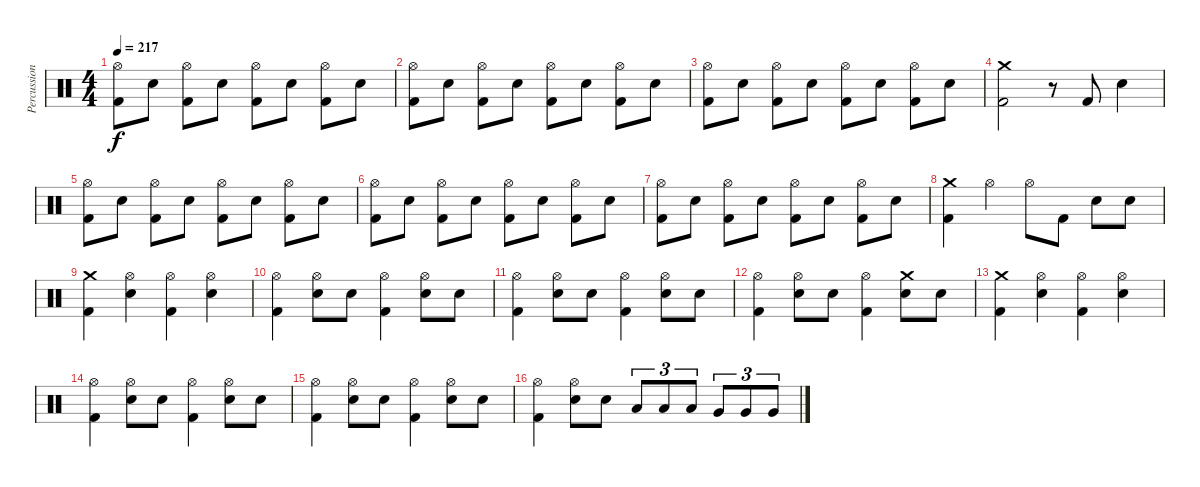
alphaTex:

\track ("Percussions" "Percussion") {instrument percussion}
\staff {score}
\articulation defaults
\ts (4 4)
\tempo 217
\clef neutral
\ks c
("Hi-Hat (open)" "Kick (hit) 2").8{dy f} "Electric Snare (hit)".8 ("Hi-Hat (open)" "Kick (hit) 2").8 "Electric Snare (hit)".8 ("Hi-Hat (open)" "Kick (hit) 2").8 "Electric Snare (hit)".8 ("Hi-Hat (open)" "Kick (hit) 2").8 "Electric Snare (hit)".8 |
("Hi-Hat (open)" "Kick (hit) 2").8 "Electric Snare (hit)".8 ("Hi-Hat (open)" "Kick (hit) 2").8 "Electric Snare (hit)".8 ("Hi-Hat (open)" "Kick (hit) 2").8 "Electric Snare (hit)".8 ("Hi-Hat (open)" "Kick (hit) 2").8 "Electric Snare (hit)".8 |
("Hi-Hat (open)" "Kick (hit) 2").8 "Electric Snare (hit)".8 ("Hi-Hat (open)" "Kick (hit) 2").8 "Electric Snare (hit)".8 ("Hi-Hat (open)" "Kick (hit) 2").8 "Electric Snare (hit)".8 ("Hi-Hat (open)" "Kick (hit) 2").8 "Electric Snare (hit)".8 |
("Crash medium (hit)" "Kick (hit) 2").2 r.8 "Kick (hit) 2".8 "Electric Snare (hit)".4 |
("Hi-Hat (open)" "Kick (hit) 2").8 "Electric Snare (hit)".8 ("Hi-Hat (open)" "Kick (hit) 2").8 "Electric Snare (hit)".8 ("Hi-Hat (open)" "Kick (hit) 2").8 "Electric Snare (hit)".8 ("Hi-Hat (open)" "Kick (hit) 2").8 "Electric Snare (hit)".8 |
("Hi-Hat (open)" "Kick (hit) 2").8 "Electric Snare (hit)".8 ("Hi-Hat (open)" "Kick (hit) 2").8 "Electric Snare (hit)".8 ("Hi-Hat (open)" "Kick (hit) 2").8 "Electric Snare (hit)".8 ("Hi-Hat (open)" "Kick (hit) 2").8 "Electric Snare (hit)".8 |
("Hi-Hat (open)" "Kick (hit) 2").8 "Electric Snare (hit)".8 ("Hi-Hat (open)" "Kick (hit) 2").8 "Electric Snare (hit)".8 ("Hi-Hat (open)" "Kick (hit) 2").8 "Electric Snare (hit)".8 ("Hi-Hat (open)" "Kick (hit) 2").8 "Electric Snare (hit)".8 |
("Crash medium (hit)" "Kick (hit) 2").4 "Hi-Hat (open)".4 "Hi-Hat (open)".8 "Kick (hit) 2".8 "Electric Snare (hit)".8 "Electric Snare (hit)".8 |
("Crash medium (hit)" "Kick (hit) 2").4 ("Hi-Hat (open)" "Electric Snare (hit)").4 ("Hi-Hat (open)" "Kick (hit) 2").4 ("Hi-Hat (open)" "Electric Snare (hit)").4 |
("Hi-Hat (open)" "Kick (hit) 2").4 ("Hi-Hat (open)" "Electric Snare (hit)").8 "Electric Snare (hit)".8 ("Hi-Hat (open)" "Kick (hit) 2").4 ("Hi-Hat (open)" "Electric Snare (hit)").8 "Electric Snare (hit)".8 |
("Hi-Hat (open)" "Kick (hit) 2").4 ("Hi-Hat (open)" "Electric Snare (hit)").8 "Electric Snare (hit)".8 ("Hi-Hat (open)" "Kick (hit) 2").4 ("Hi-Hat (open)" "Electric Snare (hit)").8 "Electric Snare (hit)".8 |
("Hi-Hat (open)" "Kick (hit) 2").4 ("Hi-Hat (open)" "Electric Snare (hit)").8 "Electric Snare (hit)".8 ("Hi-Hat (open)" "Kick (hit) 2").4 ("Crash medium (hit)" "Electric Snare (hit)").8 "Electric Snare (hit)".8 |
("Crash medium (hit)" "Kick (hit) 2").4 ("Hi-Hat (open)" "Electric Snare (hit)").4 ("Hi-Hat (open)" "Kick (hit) 2").4 ("Hi-Hat (open)" "Electric Snare (hit)").4 |
("Hi-Hat (open)" "Kick (hit) 2").4 ("Hi-Hat (open)" "Electric Snare (hit)").8 "Electric Snare (hit)".8 ("Hi-Hat (open)" "Kick (hit) 2").4 ("Hi-Hat (open)" "Electric Snare (hit)").8 "Electric Snare (hit)".8 |
("Hi-Hat (open)" "Kick (hit) 2").4 ("Hi-Hat (open)" "Electric Snare (hit)").8 "Electric Snare (hit)".8 ("Hi-Hat (open)" "Kick (hit) 2").4 ("Hi-Hat (open)" "Electric Snare (hit)").8 "Electric Snare (hit)".8 |
("Hi-Hat (open)" "Kick (hit) 2").4 ("Hi-Hat (open)" "Electric Snare (hit)").8 "Electric Snare (hit)".8 "Low Tom (hit)".8{tu (3 2)} "Low Tom (hit)".8{tu (3 2)} "Low Tom (hit)".8{tu (3 2)} "Very Low Tom (hit)".8{tu (3 2)} "Very Low Tom (hit)".8{tu (3 2)} "Very Low Tom (hit)".8{tu (3 2)}
